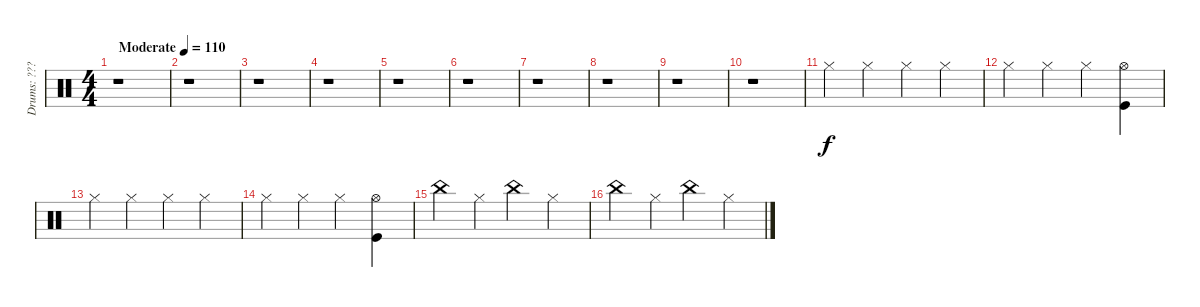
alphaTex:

\track ("Drums: ???" "Drums: ???") {instrument percussion}
\staff {score}
\articulation defaults
\ts (4 4)
\tempo (110 "Moderate")
\clef neutral
\ks c
r.1{dy f} |
r.1 |
r.1 |
r.1 |
r.1 |
r.1 |
r.1 |
r.1 |
r.1 |
r.1 |
"Hi-Hat (closed)".4 "Hi-Hat (closed)".4 "Hi-Hat (closed)".4 "Hi-Hat (closed)".4 |
"Hi-Hat (closed)".4 "Hi-Hat (closed)".4 "Hi-Hat (closed)".4 ("Hi-Hat (open)" "Kick (hit)").4 |
"Hi-Hat (closed)".4 "Hi-Hat (closed)".4 "Hi-Hat (closed)".4 "Hi-Hat (closed)".4 |
"Hi-Hat (closed)".4 "Hi-Hat (closed)".4 "Hi-Hat (closed)".4 ("Hi-Hat (open)" "Kick (hit)").4 |
"China (hit)".4 "Hi-Hat (closed)".4 "China (hit)".4 "Hi-Hat (closed)".4 |
"China (hit)".4 "Hi-Hat (closed)".4 "China (hit)".4 "Hi-Hat (closed)".4
